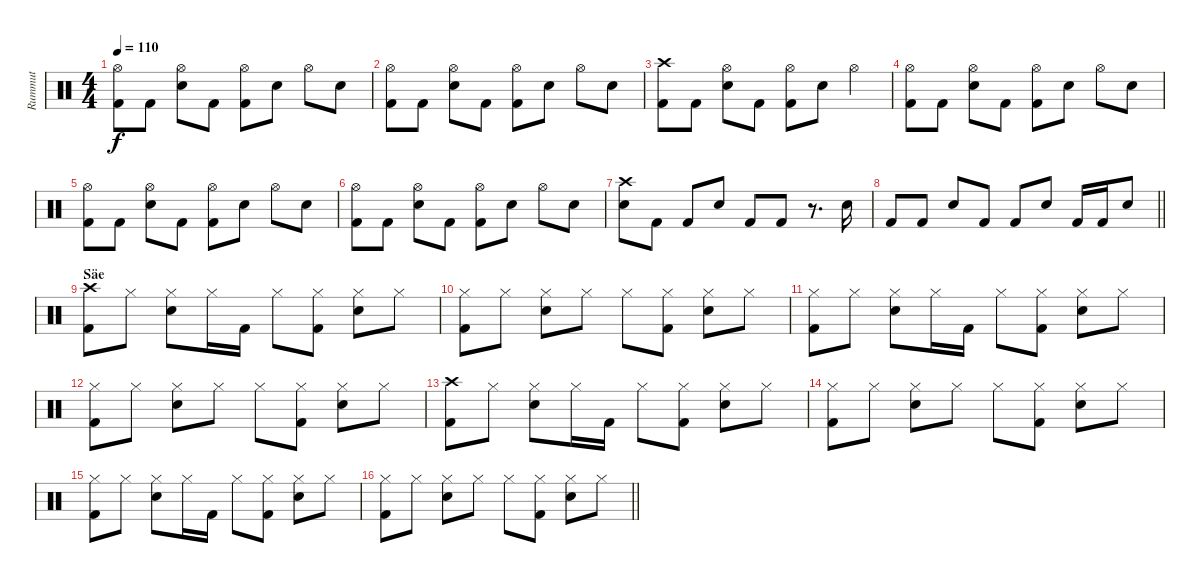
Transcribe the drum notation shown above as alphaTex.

\track ("Rummut" "Rummut") {instrument percussion}
\staff {score}
\articulation defaults
\ts (4 4)
\tempo 110
\clef neutral
\ks c
("Hi-Hat (open)" "Kick (hit) 2").8{dy f} "Kick (hit) 2".8 ("Hi-Hat (open)" "Snare (hit) 2").8 "Kick (hit) 2".8 ("Hi-Hat (open)" "Kick (hit) 2").8 "Snare (hit) 2".8 "Hi-Hat (open)".8 "Snare (hit) 2".8 |
("Hi-Hat (open)" "Kick (hit) 2").8 "Kick (hit) 2".8 ("Hi-Hat (open)" "Snare (hit) 2").8 "Kick (hit) 2".8 ("Hi-Hat (open)" "Kick (hit) 2").8 "Snare (hit) 2".8 "Hi-Hat (open)".8 "Snare (hit) 2".8 |
("Crash high (hit)" "Kick (hit) 2").8 "Kick (hit) 2".8 ("Hi-Hat (open)" "Snare (hit) 2").8 "Kick (hit) 2".8 ("Hi-Hat (open)" "Kick (hit) 2").8 "Snare (hit) 2".8 "Hi-Hat (open)".4 |
("Hi-Hat (open)" "Kick (hit) 2").8 "Kick (hit) 2".8 ("Hi-Hat (open)" "Snare (hit) 2").8 "Kick (hit) 2".8 ("Hi-Hat (open)" "Kick (hit) 2").8 "Snare (hit) 2".8 "Hi-Hat (open)".8 "Snare (hit) 2".8 |
("Hi-Hat (open)" "Kick (hit) 2").8 "Kick (hit) 2".8 ("Hi-Hat (open)" "Snare (hit) 2").8 "Kick (hit) 2".8 ("Hi-Hat (open)" "Kick (hit) 2").8 "Snare (hit) 2".8 "Hi-Hat (open)".8 "Snare (hit) 2".8 |
("Hi-Hat (open)" "Kick (hit) 2").8 "Kick (hit) 2".8 ("Hi-Hat (open)" "Snare (hit) 2").8 "Kick (hit) 2".8 ("Hi-Hat (open)" "Kick (hit) 2").8 "Snare (hit) 2".8 "Hi-Hat (open)".8 "Snare (hit) 2".8 |
("Crash high (hit)" "Snare (hit) 2").8 "Kick (hit) 2".8 "Kick (hit) 2".8 "Snare (hit) 2".8 "Kick (hit) 2".8 "Kick (hit) 2".8 r.8{d} "Snare (hit) 2".16 |
\barLineRight lightlight "Kick (hit) 2".8 "Kick (hit) 2".8 "Snare (hit) 2".8 "Kick (hit) 2".8 "Kick (hit) 2".8 "Snare (hit) 2".8 "Kick (hit) 2".16 "Kick (hit) 2".16 "Snare (hit) 2".8
|
\section ("" "Säe")
("Crash high (hit)" "Kick (hit) 2").8 "Hi-Hat (closed)".8 ("Hi-Hat (closed)" "Snare (hit) 2").8 "Hi-Hat (closed)".16 "Kick (hit) 2".16 "Hi-Hat (closed)".8 ("Hi-Hat (closed)" "Kick (hit) 2").8 ("Hi-Hat (closed)" "Snare (hit) 2").8 "Hi-Hat (closed)".8 |
("Hi-Hat (closed)" "Kick (hit) 2").8 "Hi-Hat (closed)".8 ("Hi-Hat (closed)" "Snare (hit) 2").8 "Hi-Hat (closed)".8 "Hi-Hat (closed)".8 ("Hi-Hat (closed)" "Kick (hit) 2").8 ("Hi-Hat (closed)" "Snare (hit) 2").8 "Hi-Hat (closed)".8 |
("Hi-Hat (closed)" "Kick (hit) 2").8 "Hi-Hat (closed)".8 ("Hi-Hat (closed)" "Snare (hit) 2").8 "Hi-Hat (closed)".16 "Kick (hit) 2".16 "Hi-Hat (closed)".8 ("Hi-Hat (closed)" "Kick (hit) 2").8 ("Hi-Hat (closed)" "Snare (hit) 2").8 "Hi-Hat (closed)".8 |
("Hi-Hat (closed)" "Kick (hit) 2").8 "Hi-Hat (closed)".8 ("Hi-Hat (closed)" "Snare (hit) 2").8 "Hi-Hat (closed)".8 "Hi-Hat (closed)".8 ("Hi-Hat (closed)" "Kick (hit) 2").8 ("Hi-Hat (closed)" "Snare (hit) 2").8 "Hi-Hat (closed)".8 |
("Crash high (hit)" "Kick (hit) 2").8 "Hi-Hat (closed)".8 ("Hi-Hat (closed)" "Snare (hit) 2").8 "Hi-Hat (closed)".16 "Kick (hit) 2".16 "Hi-Hat (closed)".8 ("Hi-Hat (closed)" "Kick (hit) 2").8 ("Hi-Hat (closed)" "Snare (hit) 2").8 "Hi-Hat (closed)".8 |
("Hi-Hat (closed)" "Kick (hit) 2").8 "Hi-Hat (closed)".8 ("Hi-Hat (closed)" "Snare (hit) 2").8 "Hi-Hat (closed)".8 "Hi-Hat (closed)".8 ("Hi-Hat (closed)" "Kick (hit) 2").8 ("Hi-Hat (closed)" "Snare (hit) 2").8 "Hi-Hat (closed)".8 |
("Hi-Hat (closed)" "Kick (hit) 2").8 "Hi-Hat (closed)".8 ("Hi-Hat (closed)" "Snare (hit) 2").8 "Hi-Hat (closed)".16 "Kick (hit) 2".16 "Hi-Hat (closed)".8 ("Hi-Hat (closed)" "Kick (hit) 2").8 ("Hi-Hat (closed)" "Snare (hit) 2").8 "Hi-Hat (closed)".8 |
\barLineRight lightlight
("Hi-Hat (closed)" "Kick (hit) 2").8 "Hi-Hat (closed)".8 ("Hi-Hat (closed)" "Snare (hit) 2").8 "Hi-Hat (closed)".8 "Hi-Hat (closed)".8 ("Hi-Hat (closed)" "Kick (hit) 2").8 ("Hi-Hat (closed)" "Snare (hit) 2").8 "Hi-Hat (closed)".8
